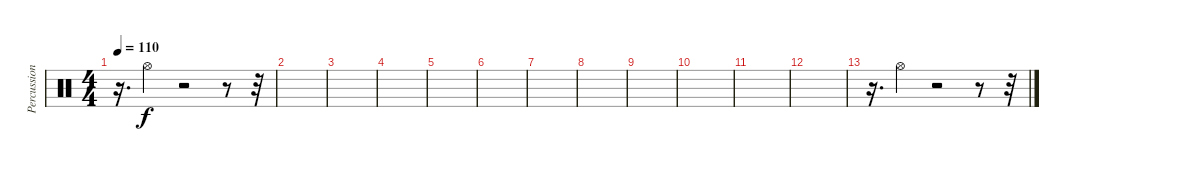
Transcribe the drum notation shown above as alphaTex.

\track ("Percussion" "Percussion") {instrument percussion}
\staff {score}
\articulation defaults
\ts (4 4)
\tempo 110
\clef neutral
\ks c
r.16{d dy f} "Hi-Hat (open)".4 r.2 r.8 r.32 |
|
|
|
|
|
|
|
|
|
|
|
r.16{d} "Hi-Hat (open)".4 r.2 r.8 r.32
